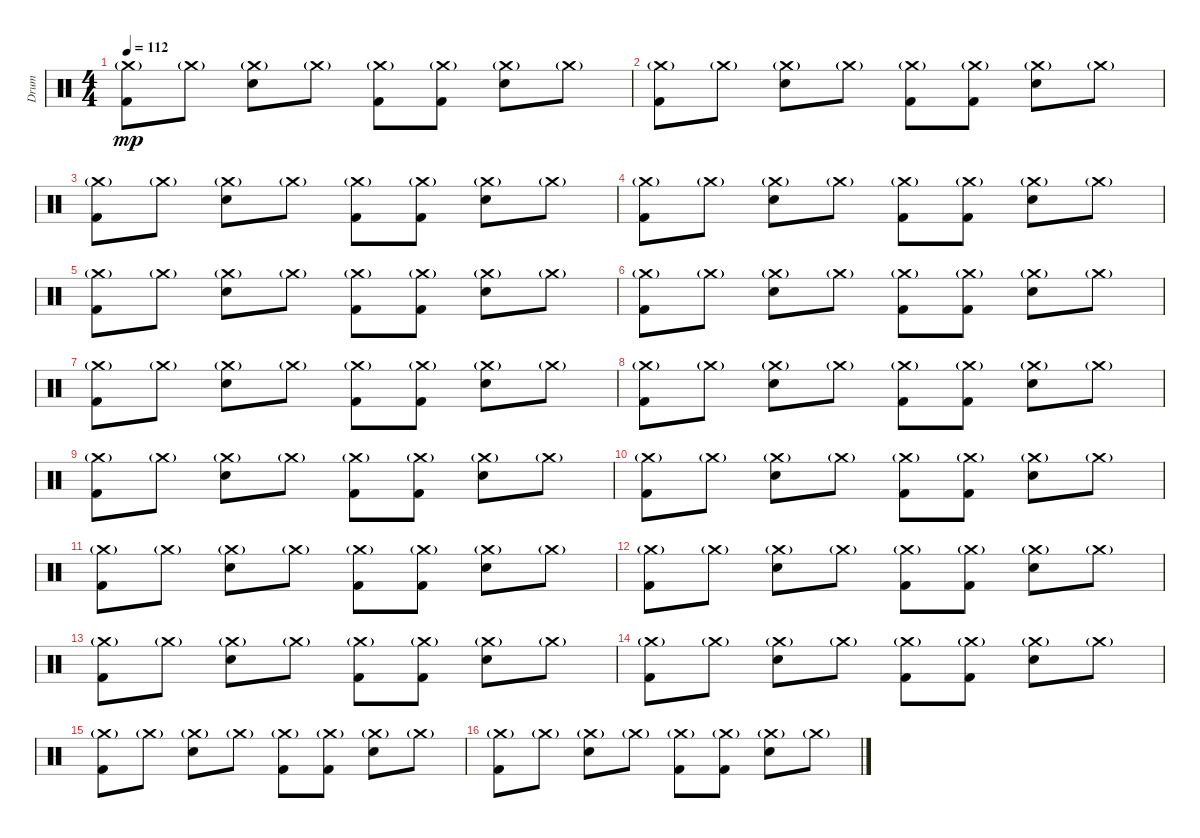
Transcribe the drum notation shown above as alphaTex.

\track ("Drum" "Drum") {instrument percussion}
\staff {score}
\articulation defaults
\ts (4 4)
\tempo 112
\clef neutral
\ks c
("Crash medium (hit)"{g} "Kick (hit) 2").8{dy mp} "Crash medium (hit)"{g}.8 ("Crash medium (hit)"{g} "Electric Snare (hit)").8 "Crash medium (hit)"{g}.8 ("Crash medium (hit)"{g} "Kick (hit) 2").8 ("Crash medium (hit)"{g} "Kick (hit) 2").8 ("Crash medium (hit)"{g} "Electric Snare (hit)").8 "Crash medium (hit)"{g}.8 |
("Crash medium (hit)"{g} "Kick (hit) 2").8 "Crash medium (hit)"{g}.8 ("Crash medium (hit)"{g} "Electric Snare (hit)").8 "Crash medium (hit)"{g}.8 ("Crash medium (hit)"{g} "Kick (hit) 2").8 ("Crash medium (hit)"{g} "Kick (hit) 2").8 ("Crash medium (hit)"{g} "Electric Snare (hit)").8 "Crash medium (hit)"{g}.8 |
("Crash medium (hit)"{g} "Kick (hit) 2").8 "Crash medium (hit)"{g}.8 ("Crash medium (hit)"{g} "Electric Snare (hit)").8 "Crash medium (hit)"{g}.8 ("Crash medium (hit)"{g} "Kick (hit) 2").8 ("Crash medium (hit)"{g} "Kick (hit) 2").8 ("Crash medium (hit)"{g} "Electric Snare (hit)").8 "Crash medium (hit)"{g}.8 |
("Crash medium (hit)"{g} "Kick (hit) 2").8 "Crash medium (hit)"{g}.8 ("Crash medium (hit)"{g} "Electric Snare (hit)").8 "Crash medium (hit)"{g}.8 ("Crash medium (hit)"{g} "Kick (hit) 2").8 ("Crash medium (hit)"{g} "Kick (hit) 2").8 ("Crash medium (hit)"{g} "Electric Snare (hit)").8 "Crash medium (hit)"{g}.8 |
("Crash medium (hit)"{g} "Kick (hit) 2").8 "Crash medium (hit)"{g}.8 ("Crash medium (hit)"{g} "Electric Snare (hit)").8 "Crash medium (hit)"{g}.8 ("Crash medium (hit)"{g} "Kick (hit) 2").8 ("Crash medium (hit)"{g} "Kick (hit) 2").8 ("Crash medium (hit)"{g} "Electric Snare (hit)").8 "Crash medium (hit)"{g}.8 |
("Crash medium (hit)"{g} "Kick (hit) 2").8 "Crash medium (hit)"{g}.8 ("Crash medium (hit)"{g} "Electric Snare (hit)").8 "Crash medium (hit)"{g}.8 ("Crash medium (hit)"{g} "Kick (hit) 2").8 ("Crash medium (hit)"{g} "Kick (hit) 2").8 ("Crash medium (hit)"{g} "Electric Snare (hit)").8 "Crash medium (hit)"{g}.8 |
("Crash medium (hit)"{g} "Kick (hit) 2").8 "Crash medium (hit)"{g}.8 ("Crash medium (hit)"{g} "Electric Snare (hit)").8 "Crash medium (hit)"{g}.8 ("Crash medium (hit)"{g} "Kick (hit) 2").8 ("Crash medium (hit)"{g} "Kick (hit) 2").8 ("Crash medium (hit)"{g} "Electric Snare (hit)").8 "Crash medium (hit)"{g}.8 |
("Crash medium (hit)"{g} "Kick (hit) 2").8 "Crash medium (hit)"{g}.8 ("Crash medium (hit)"{g} "Electric Snare (hit)").8 "Crash medium (hit)"{g}.8 ("Crash medium (hit)"{g} "Kick (hit) 2").8 ("Crash medium (hit)"{g} "Kick (hit) 2").8 ("Crash medium (hit)"{g} "Electric Snare (hit)").8 "Crash medium (hit)"{g}.8 |
("Crash medium (hit)"{g} "Kick (hit) 2").8 "Crash medium (hit)"{g}.8 ("Crash medium (hit)"{g} "Electric Snare (hit)").8 "Crash medium (hit)"{g}.8 ("Crash medium (hit)"{g} "Kick (hit) 2").8 ("Crash medium (hit)"{g} "Kick (hit) 2").8 ("Crash medium (hit)"{g} "Electric Snare (hit)").8 "Crash medium (hit)"{g}.8 |
("Crash medium (hit)"{g} "Kick (hit) 2").8 "Crash medium (hit)"{g}.8 ("Crash medium (hit)"{g} "Electric Snare (hit)").8 "Crash medium (hit)"{g}.8 ("Crash medium (hit)"{g} "Kick (hit) 2").8 ("Crash medium (hit)"{g} "Kick (hit) 2").8 ("Crash medium (hit)"{g} "Electric Snare (hit)").8 "Crash medium (hit)"{g}.8 |
("Crash medium (hit)"{g} "Kick (hit) 2").8 "Crash medium (hit)"{g}.8 ("Crash medium (hit)"{g} "Electric Snare (hit)").8 "Crash medium (hit)"{g}.8 ("Crash medium (hit)"{g} "Kick (hit) 2").8 ("Crash medium (hit)"{g} "Kick (hit) 2").8 ("Crash medium (hit)"{g} "Electric Snare (hit)").8 "Crash medium (hit)"{g}.8 |
("Crash medium (hit)"{g} "Kick (hit) 2").8 "Crash medium (hit)"{g}.8 ("Crash medium (hit)"{g} "Electric Snare (hit)").8 "Crash medium (hit)"{g}.8 ("Crash medium (hit)"{g} "Kick (hit) 2").8 ("Crash medium (hit)"{g} "Kick (hit) 2").8 ("Crash medium (hit)"{g} "Electric Snare (hit)").8 "Crash medium (hit)"{g}.8 |
("Crash medium (hit)"{g} "Kick (hit) 2").8 "Crash medium (hit)"{g}.8 ("Crash medium (hit)"{g} "Electric Snare (hit)").8 "Crash medium (hit)"{g}.8 ("Crash medium (hit)"{g} "Kick (hit) 2").8 ("Crash medium (hit)"{g} "Kick (hit) 2").8 ("Crash medium (hit)"{g} "Electric Snare (hit)").8 "Crash medium (hit)"{g}.8 |
("Crash medium (hit)"{g} "Kick (hit) 2").8 "Crash medium (hit)"{g}.8 ("Crash medium (hit)"{g} "Electric Snare (hit)").8 "Crash medium (hit)"{g}.8 ("Crash medium (hit)"{g} "Kick (hit) 2").8 ("Crash medium (hit)"{g} "Kick (hit) 2").8 ("Crash medium (hit)"{g} "Electric Snare (hit)").8 "Crash medium (hit)"{g}.8 |
("Crash medium (hit)"{g} "Kick (hit) 2").8 "Crash medium (hit)"{g}.8 ("Crash medium (hit)"{g} "Electric Snare (hit)").8 "Crash medium (hit)"{g}.8 ("Crash medium (hit)"{g} "Kick (hit) 2").8 ("Crash medium (hit)"{g} "Kick (hit) 2").8 ("Crash medium (hit)"{g} "Electric Snare (hit)").8 "Crash medium (hit)"{g}.8 |
("Crash medium (hit)"{g} "Kick (hit) 2").8 "Crash medium (hit)"{g}.8 ("Crash medium (hit)"{g} "Electric Snare (hit)").8 "Crash medium (hit)"{g}.8 ("Crash medium (hit)"{g} "Kick (hit) 2").8 ("Crash medium (hit)"{g} "Kick (hit) 2").8 ("Crash medium (hit)"{g} "Electric Snare (hit)").8 "Crash medium (hit)"{g}.8
